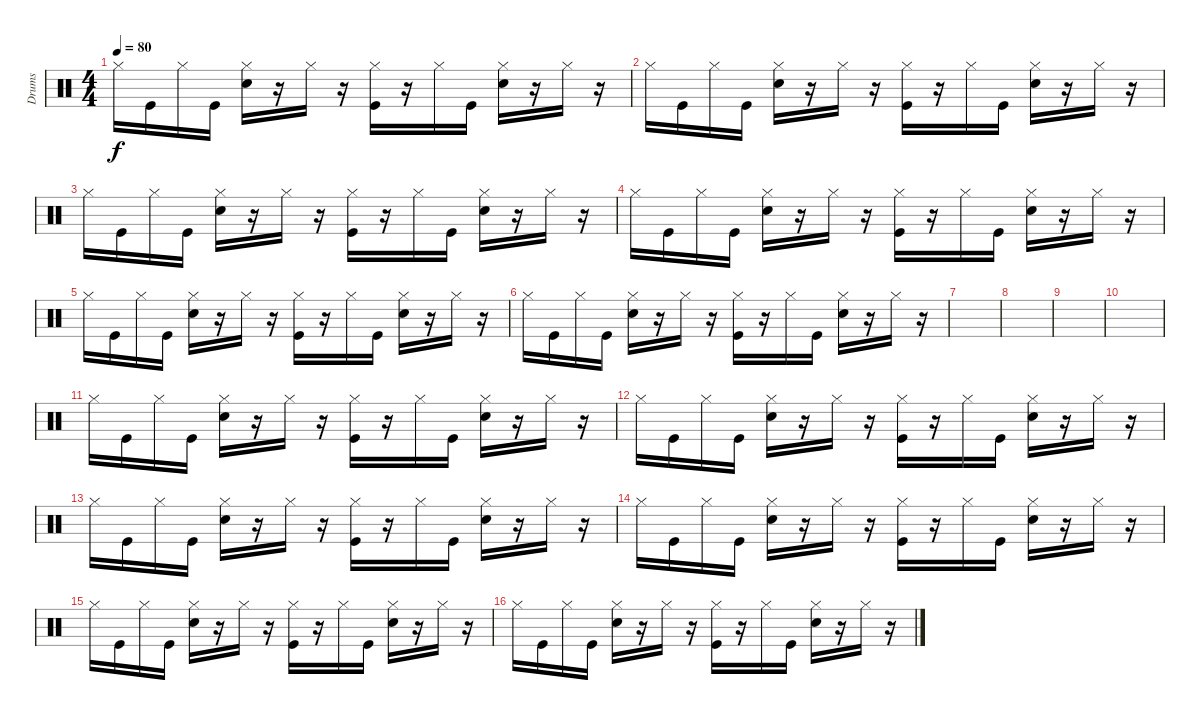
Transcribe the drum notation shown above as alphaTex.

\track ("Drums" "Drums") {instrument percussion}
\staff {score}
\articulation defaults
\ts (4 4)
\tempo 80
\clef neutral
\ks c "Hi-Hat (closed)".16{dy f} "Kick (hit)".16 "Hi-Hat (closed)".16 "Kick (hit)".16
("Hi-Hat (closed)" "Electric Snare (hit)").16 r.16 "Hi-Hat (closed)".16 r.16 ("Hi-Hat (closed)" "Kick (hit)").16 r.16 "Hi-Hat (closed)".16 "Kick (hit)".16 ("Hi-Hat (closed)" "Electric Snare (hit)").16 r.16 "Hi-Hat (closed)".16 r.16 |
"Hi-Hat (closed)".16 "Kick (hit)".16 "Hi-Hat (closed)".16 "Kick (hit)".16 ("Hi-Hat (closed)" "Electric Snare (hit)").16 r.16 "Hi-Hat (closed)".16 r.16 ("Hi-Hat (closed)" "Kick (hit)").16 r.16 "Hi-Hat (closed)".16 "Kick (hit)".16 ("Hi-Hat (closed)" "Electric Snare (hit)").16 r.16 "Hi-Hat (closed)".16 r.16 |
"Hi-Hat (closed)".16 "Kick (hit)".16 "Hi-Hat (closed)".16 "Kick (hit)".16 ("Hi-Hat (closed)" "Electric Snare (hit)").16 r.16 "Hi-Hat (closed)".16 r.16 ("Hi-Hat (closed)" "Kick (hit)").16 r.16 "Hi-Hat (closed)".16 "Kick (hit)".16 ("Hi-Hat (closed)" "Electric Snare (hit)").16 r.16 "Hi-Hat (closed)".16 r.16 |
"Hi-Hat (closed)".16 "Kick (hit)".16 "Hi-Hat (closed)".16 "Kick (hit)".16 ("Hi-Hat (closed)" "Electric Snare (hit)").16 r.16 "Hi-Hat (closed)".16 r.16 ("Hi-Hat (closed)" "Kick (hit)").16 r.16 "Hi-Hat (closed)".16 "Kick (hit)".16 ("Hi-Hat (closed)" "Electric Snare (hit)").16 r.16 "Hi-Hat (closed)".16 r.16 |
"Hi-Hat (closed)".16 "Kick (hit)".16 "Hi-Hat (closed)".16 "Kick (hit)".16 ("Hi-Hat (closed)" "Electric Snare (hit)").16 r.16 "Hi-Hat (closed)".16 r.16 ("Hi-Hat (closed)" "Kick (hit)").16 r.16 "Hi-Hat (closed)".16 "Kick (hit)".16 ("Hi-Hat (closed)" "Electric Snare (hit)").16 r.16 "Hi-Hat (closed)".16 r.16 |
"Hi-Hat (closed)".16 "Kick (hit)".16 "Hi-Hat (closed)".16 "Kick (hit)".16 ("Hi-Hat (closed)" "Electric Snare (hit)").16 r.16 "Hi-Hat (closed)".16 r.16 ("Hi-Hat (closed)" "Kick (hit)").16 r.16 "Hi-Hat (closed)".16 "Kick (hit)".16 ("Hi-Hat (closed)" "Electric Snare (hit)").16 r.16 "Hi-Hat (closed)".16 r.16 |
|
|
|
|
"Hi-Hat (closed)".16 "Kick (hit)".16 "Hi-Hat (closed)".16 "Kick (hit)".16 ("Hi-Hat (closed)" "Electric Snare (hit)").16 r.16 "Hi-Hat (closed)".16 r.16 ("Hi-Hat (closed)" "Kick (hit)").16 r.16 "Hi-Hat (closed)".16 "Kick (hit)".16 ("Hi-Hat (closed)" "Electric Snare (hit)").16 r.16 "Hi-Hat (closed)".16 r.16 |
"Hi-Hat (closed)".16 "Kick (hit)".16 "Hi-Hat (closed)".16 "Kick (hit)".16 ("Hi-Hat (closed)" "Electric Snare (hit)").16 r.16 "Hi-Hat (closed)".16 r.16 ("Hi-Hat (closed)" "Kick (hit)").16 r.16 "Hi-Hat (closed)".16 "Kick (hit)".16 ("Hi-Hat (closed)" "Electric Snare (hit)").16 r.16 "Hi-Hat (closed)".16 r.16 |
"Hi-Hat (closed)".16 "Kick (hit)".16 "Hi-Hat (closed)".16 "Kick (hit)".16 ("Hi-Hat (closed)" "Electric Snare (hit)").16 r.16 "Hi-Hat (closed)".16 r.16 ("Hi-Hat (closed)" "Kick (hit)").16 r.16 "Hi-Hat (closed)".16 "Kick (hit)".16 ("Hi-Hat (closed)" "Electric Snare (hit)").16 r.16 "Hi-Hat (closed)".16 r.16 |
"Hi-Hat (closed)".16 "Kick (hit)".16 "Hi-Hat (closed)".16 "Kick (hit)".16 ("Hi-Hat (closed)" "Electric Snare (hit)").16 r.16 "Hi-Hat (closed)".16 r.16 ("Hi-Hat (closed)" "Kick (hit)").16 r.16 "Hi-Hat (closed)".16 "Kick (hit)".16 ("Hi-Hat (closed)" "Electric Snare (hit)").16 r.16 "Hi-Hat (closed)".16 r.16 |
"Hi-Hat (closed)".16 "Kick (hit)".16 "Hi-Hat (closed)".16 "Kick (hit)".16 ("Hi-Hat (closed)" "Electric Snare (hit)").16 r.16 "Hi-Hat (closed)".16 r.16 ("Hi-Hat (closed)" "Kick (hit)").16 r.16 "Hi-Hat (closed)".16 "Kick (hit)".16 ("Hi-Hat (closed)" "Electric Snare (hit)").16 r.16 "Hi-Hat (closed)".16 r.16 |
"Hi-Hat (closed)".16 "Kick (hit)".16 "Hi-Hat (closed)".16 "Kick (hit)".16 ("Hi-Hat (closed)" "Electric Snare (hit)").16 r.16 "Hi-Hat (closed)".16 r.16 ("Hi-Hat (closed)" "Kick (hit)").16 r.16 "Hi-Hat (closed)".16 "Kick (hit)".16 ("Hi-Hat (closed)" "Electric Snare (hit)").16 r.16 "Hi-Hat (closed)".16 r.16
